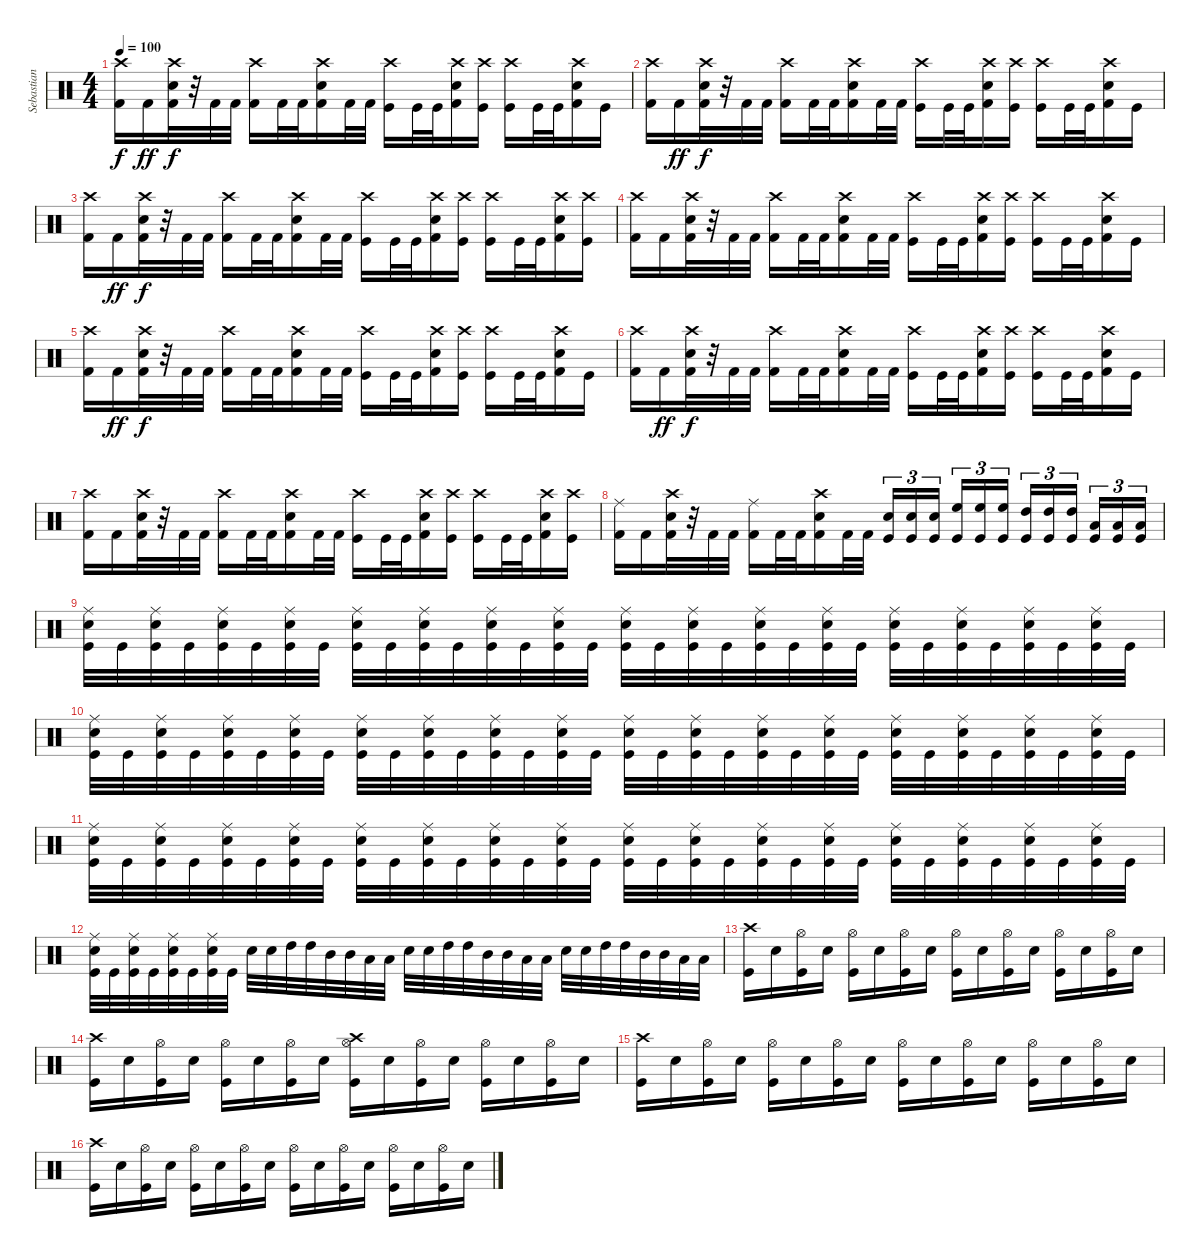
\track ("Sebastian Heldt" "Sebastian ") {instrument percussion bank 177}
\staff {score}
\articulation defaults
\ts (4 4)
\tempo 100
\clef neutral
\ks c
("Kick (hit) 2" "Crash high (hit)").16{dy f} "Kick (hit) 2".16{dy ff} ("Crash high (hit)" "Kick (hit) 2" "Snare (hit) 2").32{dy f} r.32 "Kick (hit) 2".32 "Kick (hit) 2".32 ("Kick (hit) 2" "Crash high (hit)").16 "Kick (hit) 2".32 "Kick (hit) 2".32 ("Crash high (hit)" "Kick (hit) 2" "Snare (hit) 2").16 "Kick (hit) 2".32 "Kick (hit) 2".32 ("Kick (hit)" "Crash high (hit)").16 "Kick (hit)".32 "Kick (hit)".32 ("Crash high (hit)" "Kick (hit) 2" "Snare (hit) 2").16 ("Kick (hit)" "Crash high (hit)").16 ("Kick (hit)" "Crash high (hit)").16 "Kick (hit)".32 "Kick (hit)".32 ("Crash high (hit)" "Kick (hit) 2" "Snare (hit) 2").16 "Kick (hit)".16 |
("Kick (hit) 2" "Crash high (hit)").16 "Kick (hit) 2".16{dy ff} ("Crash high (hit)" "Kick (hit) 2" "Snare (hit) 2").32{dy f} r.32 "Kick (hit) 2".32 "Kick (hit) 2".32 ("Kick (hit) 2" "Crash high (hit)").16 "Kick (hit) 2".32 "Kick (hit) 2".32 ("Crash high (hit)" "Kick (hit) 2" "Snare (hit) 2").16 "Kick (hit) 2".32 "Kick (hit) 2".32 ("Kick (hit)" "Crash high (hit)").16 "Kick (hit)".32 "Kick (hit)".32 ("Crash high (hit)" "Kick (hit) 2" "Snare (hit) 2").16 ("Kick (hit)" "Crash high (hit)").16 ("Kick (hit)" "Crash high (hit)").16 "Kick (hit)".32 "Kick (hit)".32 ("Crash high (hit)" "Kick (hit) 2" "Snare (hit) 2").16 "Kick (hit)".16 |
("Kick (hit) 2" "Crash high (hit)").16 "Kick (hit) 2".16{dy ff} ("Crash high (hit)" "Kick (hit) 2" "Snare (hit) 2").32{dy f} r.32 "Kick (hit) 2".32 "Kick (hit) 2".32 ("Kick (hit) 2" "Crash high (hit)").16 "Kick (hit) 2".32 "Kick (hit) 2".32 ("Crash high (hit)" "Kick (hit) 2" "Snare (hit) 2").16 "Kick (hit) 2".32 "Kick (hit) 2".32 ("Kick (hit)" "Crash high (hit)").16 "Kick (hit)".32 "Kick (hit)".32 ("Crash high (hit)" "Kick (hit) 2" "Snare (hit) 2").16 ("Kick (hit)" "Crash high (hit)").16 ("Kick (hit)" "Crash high (hit)").16 "Kick (hit)".32 "Kick (hit)".32 ("Crash high (hit)" "Kick (hit) 2" "Snare (hit) 2").16 ("Kick (hit)" "Crash high (hit)").16 |
("Kick (hit) 2" "Crash high (hit)").16 "Kick (hit) 2".16 ("Crash high (hit)" "Kick (hit) 2" "Snare (hit) 2").32 r.32 "Kick (hit) 2".32 "Kick (hit) 2".32 ("Kick (hit) 2" "Crash high (hit)").16 "Kick (hit) 2".32 "Kick (hit) 2".32 ("Crash high (hit)" "Kick (hit) 2" "Snare (hit) 2").16 "Kick (hit) 2".32 "Kick (hit) 2".32 ("Kick (hit)" "Crash high (hit)").16 "Kick (hit)".32 "Kick (hit)".32 ("Crash high (hit)" "Kick (hit) 2" "Snare (hit) 2").16 ("Kick (hit)" "Crash high (hit)").16 ("Kick (hit)" "Crash high (hit)").16 "Kick (hit)".32 "Kick (hit)".32 ("Crash high (hit)" "Kick (hit) 2" "Snare (hit) 2").16 "Kick (hit)".16 |
("Kick (hit) 2" "Crash high (hit)").16 "Kick (hit) 2".16{dy ff} ("Crash high (hit)" "Kick (hit) 2" "Snare (hit) 2").32{dy f} r.32 "Kick (hit) 2".32 "Kick (hit) 2".32 ("Kick (hit) 2" "Crash high (hit)").16 "Kick (hit) 2".32 "Kick (hit) 2".32 ("Crash high (hit)" "Kick (hit) 2" "Snare (hit) 2").16 "Kick (hit) 2".32 "Kick (hit) 2".32 ("Kick (hit)" "Crash high (hit)").16 "Kick (hit)".32 "Kick (hit)".32 ("Crash high (hit)" "Kick (hit) 2" "Snare (hit) 2").16 ("Kick (hit)" "Crash high (hit)").16 ("Kick (hit)" "Crash high (hit)").16 "Kick (hit)".32 "Kick (hit)".32 ("Crash high (hit)" "Kick (hit) 2" "Snare (hit) 2").16 "Kick (hit)".16 |
("Kick (hit) 2" "Crash high (hit)").16 "Kick (hit) 2".16{dy ff} ("Crash high (hit)" "Kick (hit) 2" "Snare (hit) 2").32{dy f} r.32 "Kick (hit) 2".32 "Kick (hit) 2".32 ("Kick (hit) 2" "Crash high (hit)").16 "Kick (hit) 2".32 "Kick (hit) 2".32 ("Crash high (hit)" "Kick (hit) 2" "Snare (hit) 2").16 "Kick (hit) 2".32 "Kick (hit) 2".32 ("Kick (hit)" "Crash high (hit)").16 "Kick (hit)".32 "Kick (hit)".32 ("Crash high (hit)" "Kick (hit) 2" "Snare (hit) 2").16 ("Kick (hit)" "Crash high (hit)").16 ("Kick (hit)" "Crash high (hit)").16 "Kick (hit)".32 "Kick (hit)".32 ("Crash high (hit)" "Kick (hit) 2" "Snare (hit) 2").16 "Kick (hit)".16 |
("Kick (hit) 2" "Crash high (hit)").16 "Kick (hit) 2".16 ("Crash high (hit)" "Kick (hit) 2" "Snare (hit) 2").32 r.32 "Kick (hit) 2".32 "Kick (hit) 2".32 ("Kick (hit) 2" "Crash high (hit)").16 "Kick (hit) 2".32 "Kick (hit) 2".32 ("Crash high (hit)" "Kick (hit) 2" "Snare (hit) 2").16 "Kick (hit) 2".32 "Kick (hit) 2".32 ("Kick (hit)" "Crash high (hit)").16 "Kick (hit)".32 "Kick (hit)".32 ("Crash high (hit)" "Kick (hit) 2" "Snare (hit) 2").16 ("Kick (hit)" "Crash high (hit)").16 ("Kick (hit)" "Crash high (hit)").16 "Kick (hit)".32 "Kick (hit)".32 ("Crash high (hit)" "Kick (hit) 2" "Snare (hit) 2").16 ("Kick (hit)" "Crash high (hit)").16 |
("Kick (hit) 2" "Ride (middle)").16 "Kick (hit) 2".16 ("Crash high (hit)" "Kick (hit) 2" "Snare (hit) 2").32 r.32 "Kick (hit) 2".32 "Kick (hit) 2".32 ("Kick (hit) 2" "Ride (middle)").16 "Kick (hit) 2".32 "Kick (hit) 2".32 ("Crash high (hit)" "Kick (hit) 2" "Snare (hit) 2").16 "Kick (hit) 2".32 "Kick (hit) 2".32 ("Kick (hit)" "Snare (hit) 2").16{tu (3 2)} ("Kick (hit)" "Snare (hit) 2").16{tu (3 2)} ("Kick (hit)" "Snare (hit) 2").16{tu (3 2) beam splitsecondary} ("Kick (hit)" "High Floor Tom (hit)").16{tu (3 2)} ("Kick (hit)" "High Floor Tom (hit)").16{tu (3 2)} ("Kick (hit)" "High Floor Tom (hit)").16{tu (3 2)} ("Kick (hit)" "High Tom (hit)").16{tu (3 2)} ("Kick (hit)" "High Tom (hit)").16{tu (3 2)} ("Kick (hit)" "High Tom (hit)").16{tu (3 2) beam splitsecondary} ("Kick (hit)" "Low Tom (hit)").16{tu (3 2)} ("Kick (hit)" "Low Tom (hit)").16{tu (3 2)} ("Kick (hit)" "Low Tom (hit)").16{tu (3 2)} |
("Snare (hit) 2" "Kick (hit)" "Ride (middle)").32 "Kick (hit)".32 ("Snare (hit) 2" "Kick (hit)" "Ride (middle)").32 "Kick (hit)".32 ("Snare (hit) 2" "Kick (hit)" "Ride (middle)").32 "Kick (hit)".32 ("Snare (hit) 2" "Kick (hit)" "Ride (middle)").32 "Kick (hit)".32 ("Snare (hit) 2" "Kick (hit)" "Ride (middle)").32 "Kick (hit)".32 ("Snare (hit) 2" "Kick (hit)" "Ride (middle)").32 "Kick (hit)".32 ("Snare (hit) 2" "Kick (hit)" "Ride (middle)").32 "Kick (hit)".32 ("Snare (hit) 2" "Kick (hit)" "Ride (middle)").32 "Kick (hit)".32 ("Snare (hit) 2" "Kick (hit)" "Ride (middle)").32 "Kick (hit)".32 ("Snare (hit) 2" "Kick (hit)" "Ride (middle)").32 "Kick (hit)".32 ("Snare (hit) 2" "Kick (hit)" "Ride (middle)").32 "Kick (hit)".32 ("Snare (hit) 2" "Kick (hit)" "Ride (middle)").32 "Kick (hit)".32 ("Snare (hit) 2" "Kick (hit)" "Ride (middle)").32 "Kick (hit)".32 ("Snare (hit) 2" "Kick (hit)" "Ride (middle)").32 "Kick (hit)".32 ("Snare (hit) 2" "Kick (hit)" "Ride (middle)").32 "Kick (hit)".32 ("Snare (hit) 2" "Kick (hit)" "Ride (middle)").32 "Kick (hit)".32 |
("Snare (hit) 2" "Kick (hit)" "Ride (middle)").32 "Kick (hit)".32 ("Snare (hit) 2" "Kick (hit)" "Ride (middle)").32 "Kick (hit)".32 ("Snare (hit) 2" "Kick (hit)" "Ride (middle)").32 "Kick (hit)".32 ("Snare (hit) 2" "Kick (hit)" "Ride (middle)").32 "Kick (hit)".32 ("Snare (hit) 2" "Kick (hit)" "Ride (middle)").32 "Kick (hit)".32 ("Snare (hit) 2" "Kick (hit)" "Ride (middle)").32 "Kick (hit)".32 ("Snare (hit) 2" "Kick (hit)" "Ride (middle)").32 "Kick (hit)".32 ("Snare (hit) 2" "Kick (hit)" "Ride (middle)").32 "Kick (hit)".32 ("Snare (hit) 2" "Kick (hit)" "Ride (middle)").32 "Kick (hit)".32 ("Snare (hit) 2" "Kick (hit)" "Ride (middle)").32 "Kick (hit)".32 ("Snare (hit) 2" "Kick (hit)" "Ride (middle)").32 "Kick (hit)".32 ("Snare (hit) 2" "Kick (hit)" "Ride (middle)").32 "Kick (hit)".32 ("Snare (hit) 2" "Kick (hit)" "Ride (middle)").32 "Kick (hit)".32 ("Snare (hit) 2" "Kick (hit)" "Ride (middle)").32 "Kick (hit)".32 ("Snare (hit) 2" "Kick (hit)" "Ride (middle)").32 "Kick (hit)".32 ("Snare (hit) 2" "Kick (hit)" "Ride (middle)").32 "Kick (hit)".32 |
("Snare (hit) 2" "Kick (hit)" "Ride (middle)").32 "Kick (hit)".32 ("Snare (hit) 2" "Kick (hit)" "Ride (middle)").32 "Kick (hit)".32 ("Snare (hit) 2" "Kick (hit)" "Ride (middle)").32 "Kick (hit)".32 ("Snare (hit) 2" "Kick (hit)" "Ride (middle)").32 "Kick (hit)".32 ("Snare (hit) 2" "Kick (hit)" "Ride (middle)").32 "Kick (hit)".32 ("Snare (hit) 2" "Kick (hit)" "Ride (middle)").32 "Kick (hit)".32 ("Snare (hit) 2" "Kick (hit)" "Ride (middle)").32 "Kick (hit)".32 ("Snare (hit) 2" "Kick (hit)" "Ride (middle)").32 "Kick (hit)".32 ("Snare (hit) 2" "Kick (hit)" "Ride (middle)").32 "Kick (hit)".32 ("Snare (hit) 2" "Kick (hit)" "Ride (middle)").32 "Kick (hit)".32 ("Snare (hit) 2" "Kick (hit)" "Ride (middle)").32 "Kick (hit)".32 ("Snare (hit) 2" "Kick (hit)" "Ride (middle)").32 "Kick (hit)".32 ("Snare (hit) 2" "Kick (hit)" "Ride (middle)").32 "Kick (hit)".32 ("Snare (hit) 2" "Kick (hit)" "Ride (middle)").32 "Kick (hit)".32 ("Snare (hit) 2" "Kick (hit)" "Ride (middle)").32 "Kick (hit)".32 ("Snare (hit) 2" "Kick (hit)" "Ride (middle)").32 "Kick (hit)".32 |
("Snare (hit) 2" "Kick (hit)" "Ride (middle)").32 "Kick (hit)".32 ("Snare (hit) 2" "Kick (hit)" "Ride (middle)").32 "Kick (hit)".32 ("Snare (hit) 2" "Kick (hit)" "Ride (middle)").32 "Kick (hit)".32 ("Snare (hit) 2" "Kick (hit)" "Ride (middle)").32 "Kick (hit)".32 "Snare (hit) 2".32 "Snare (hit) 2".32 "High Tom (hit)".32 "High Tom (hit)".32 "Mid Tom (hit)".32 "Mid Tom (hit)".32 "Low Tom (hit)".32 "Low Tom (hit)".32 "Snare (hit) 2".32 "Snare (hit) 2".32 "High Tom (hit)".32 "High Tom (hit)".32 "Mid Tom (hit)".32 "Mid Tom (hit)".32 "Low Tom (hit)".32 "Low Tom (hit)".32 "Snare (hit) 2".32 "Snare (hit) 2".32 "High Tom (hit)".32 "High Tom (hit)".32 "Mid Tom (hit)".32 "Mid Tom (hit)".32 "Low Tom (hit)".32 "Low Tom (hit)".32 |
("Kick (hit)" "Crash high (hit)").16 "Snare (hit) 2".16 ("Kick (hit)" "Hi-Hat (open)").16 "Snare (hit) 2".16 ("Kick (hit)" "Hi-Hat (open)").16 "Snare (hit) 2".16 ("Kick (hit)" "Hi-Hat (open)").16 "Snare (hit) 2".16 ("Kick (hit)" "Hi-Hat (open)").16 "Snare (hit) 2".16 ("Kick (hit)" "Hi-Hat (open)").16 "Snare (hit) 2".16 ("Kick (hit)" "Hi-Hat (open)").16 "Snare (hit) 2".16 ("Kick (hit)" "Hi-Hat (open)").16 "Snare (hit) 2".16 |
("Kick (hit)" "Crash high (hit)").16 "Snare (hit) 2".16 ("Kick (hit)" "Hi-Hat (open)").16 "Snare (hit) 2".16 ("Kick (hit)" "Hi-Hat (open)").16 "Snare (hit) 2".16 ("Kick (hit)" "Hi-Hat (open)").16 "Snare (hit) 2".16 ("Kick (hit)" "Hi-Hat (open)" "Crash high (hit)").16 "Snare (hit) 2".16 ("Kick (hit)" "Hi-Hat (open)").16 "Snare (hit) 2".16 ("Kick (hit)" "Hi-Hat (open)").16 "Snare (hit) 2".16 ("Kick (hit)" "Hi-Hat (open)").16 "Snare (hit) 2".16 |
("Kick (hit)" "Crash high (hit)").16 "Snare (hit) 2".16 ("Kick (hit)" "Hi-Hat (open)").16 "Snare (hit) 2".16 ("Kick (hit)" "Hi-Hat (open)").16 "Snare (hit) 2".16 ("Kick (hit)" "Hi-Hat (open)").16 "Snare (hit) 2".16 ("Kick (hit)" "Hi-Hat (open)").16 "Snare (hit) 2".16 ("Kick (hit)" "Hi-Hat (open)").16 "Snare (hit) 2".16 ("Kick (hit)" "Hi-Hat (open)").16 "Snare (hit) 2".16 ("Kick (hit)" "Hi-Hat (open)").16 "Snare (hit) 2".16 |
("Kick (hit)" "Crash high (hit)").16 "Snare (hit) 2".16 ("Kick (hit)" "Hi-Hat (open)").16 "Snare (hit) 2".16 ("Kick (hit)" "Hi-Hat (open)").16 "Snare (hit) 2".16 ("Kick (hit)" "Hi-Hat (open)").16 "Snare (hit) 2".16 ("Kick (hit)" "Hi-Hat (open)").16 "Snare (hit) 2".16 ("Kick (hit)" "Hi-Hat (open)").16 "Snare (hit) 2".16 ("Kick (hit)" "Hi-Hat (open)").16 "Snare (hit) 2".16 ("Kick (hit)" "Hi-Hat (open)").16 "Snare (hit) 2".16
